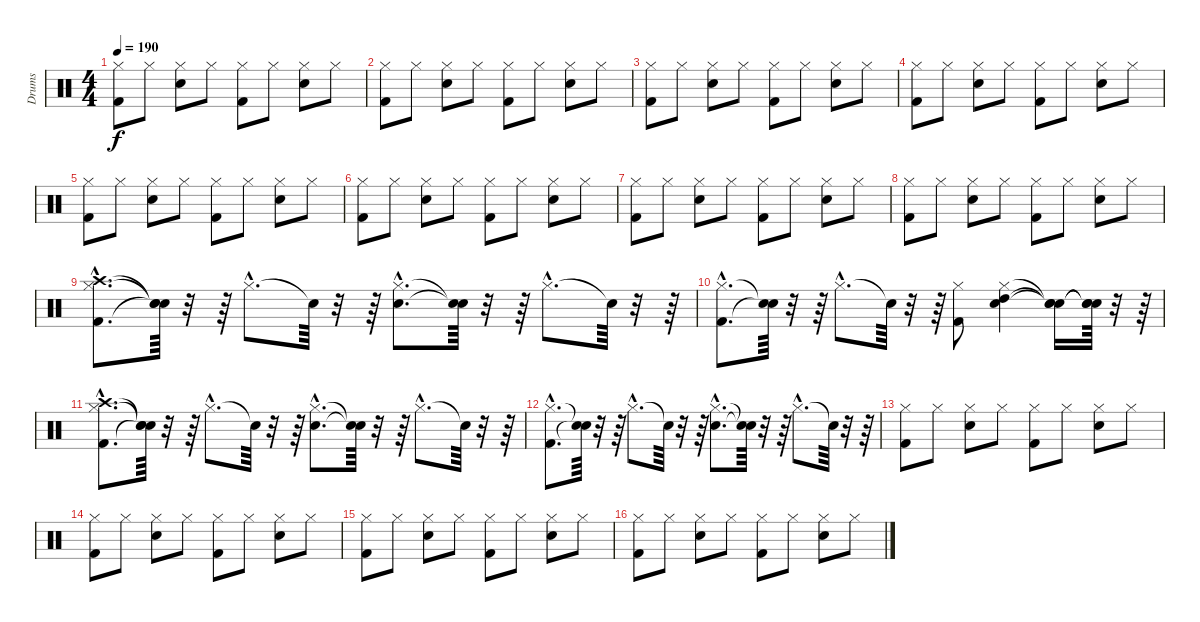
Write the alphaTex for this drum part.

\track ("Drums" "Drums") {instrument percussion}
\staff {score}
\articulation defaults
\ts (4 4)
\tempo 190
\clef neutral
\ks c
("Kick (hit) 2" "Hi-Hat (closed)").8{dy f} "Hi-Hat (closed)".8 ("Snare (hit) 2" "Hi-Hat (closed)").8 "Hi-Hat (closed)".8 ("Kick (hit) 2" "Hi-Hat (closed)").8 "Hi-Hat (closed)".8 ("Snare (hit) 2" "Hi-Hat (closed)").8 "Hi-Hat (closed)".8 |
("Kick (hit) 2" "Hi-Hat (closed)").8 "Hi-Hat (closed)".8 ("Snare (hit) 2" "Hi-Hat (closed)").8 "Hi-Hat (closed)".8 ("Kick (hit) 2" "Hi-Hat (closed)").8 "Hi-Hat (closed)".8 ("Snare (hit) 2" "Hi-Hat (closed)").8 "Hi-Hat (closed)".8 |
("Kick (hit) 2" "Hi-Hat (closed)").8 "Hi-Hat (closed)".8 ("Snare (hit) 2" "Hi-Hat (closed)").8 "Hi-Hat (closed)".8 ("Kick (hit) 2" "Hi-Hat (closed)").8 "Hi-Hat (closed)".8 ("Snare (hit) 2" "Hi-Hat (closed)").8 "Hi-Hat (closed)".8 |
("Kick (hit) 2" "Hi-Hat (closed)").8 "Hi-Hat (closed)".8 ("Snare (hit) 2" "Hi-Hat (closed)").8 "Hi-Hat (closed)".8 ("Kick (hit) 2" "Hi-Hat (closed)").8 "Hi-Hat (closed)".8 ("Snare (hit) 2" "Hi-Hat (closed)").8 "Hi-Hat (closed)".8 |
("Kick (hit) 2" "Hi-Hat (closed)").8 "Hi-Hat (closed)".8 ("Snare (hit) 2" "Hi-Hat (closed)").8 "Hi-Hat (closed)".8 ("Kick (hit) 2" "Hi-Hat (closed)").8 "Hi-Hat (closed)".8 ("Snare (hit) 2" "Hi-Hat (closed)").8 "Hi-Hat (closed)".8 |
("Kick (hit) 2" "Hi-Hat (closed)").8 "Hi-Hat (closed)".8 ("Snare (hit) 2" "Hi-Hat (closed)").8 "Hi-Hat (closed)".8 ("Kick (hit) 2" "Hi-Hat (closed)").8 "Hi-Hat (closed)".8 ("Snare (hit) 2" "Hi-Hat (closed)").8 "Hi-Hat (closed)".8 |
("Kick (hit) 2" "Hi-Hat (closed)").8 "Hi-Hat (closed)".8 ("Snare (hit) 2" "Hi-Hat (closed)").8 "Hi-Hat (closed)".8 ("Kick (hit) 2" "Hi-Hat (closed)").8 "Hi-Hat (closed)".8 ("Snare (hit) 2" "Hi-Hat (closed)").8 "Hi-Hat (closed)".8 |
("Kick (hit) 2" "Hi-Hat (closed)").8 "Hi-Hat (closed)".8 ("Snare (hit) 2" "Hi-Hat (closed)").8 "Hi-Hat (closed)".8 ("Kick (hit) 2" "Hi-Hat (closed)").8 "Hi-Hat (closed)".8 ("Snare (hit) 2" "Hi-Hat (closed)").8 "Hi-Hat (closed)".8 |
("Kick (hit) 2"{hac} "Hi-Hat (closed)"{hac} "Crash high (hit)"{hac}).8{d} ("Snare (hit)"{t} "Snare (hit)"{t} "Snare (hit)"{t}).64 r.32 r.64 "Hi-Hat (closed)"{hac}.8{d} "Snare (hit)"{t}.64 r.32 r.64 ("Snare (hit) 2"{hac} "Hi-Hat (closed)"{hac}).8{d} ("Snare (hit)"{t} "Snare (hit)"{t}).64 r.32 r.64 "Hi-Hat (closed)"{hac}.8{d} "Snare (hit)"{t}.64 r.32 r.64 |
("Kick (hit) 2"{hac} "Hi-Hat (closed)"{hac}).8{d} ("Snare (hit)"{t} "Snare (hit)"{t}).64 r.32 r.64 "Hi-Hat (closed)"{hac}.8{d} "Snare (hit)"{t}.64 r.32 r.64 ("Kick (hit) 2" "Hi-Hat (closed)").8 ("Snare (hit) 2" "Hi-Hat (closed)" "High Tom (hit)").4 ("Snare (hit)"{t} "Snare (hit)"{t} "Snare (hit)"{t}).16 ("Snare (hit)"{t} "Snare (hit)"{t} "Snare (hit)"{t}).64 r.32 r.64 |
("Kick (hit) 2"{hac} "Hi-Hat (closed)"{hac} "Crash high (hit)"{hac}).8{d} ("Snare (hit)"{t} "Snare (hit)"{t} "Snare (hit)"{t}).64 r.32 r.64 "Hi-Hat (closed)"{hac}.8{d} "Snare (hit)"{t}.64 r.32 r.64 ("Snare (hit) 2"{hac} "Hi-Hat (closed)"{hac}).8{d} ("Snare (hit)"{t} "Snare (hit)"{t}).64 r.32 r.64 "Hi-Hat (closed)"{hac}.8{d} "Snare (hit)"{t}.64 r.32 r.64 |
("Kick (hit) 2"{hac} "Hi-Hat (closed)"{hac}).8{d} ("Snare (hit)"{t} "Snare (hit)"{t}).64 r.32 r.64 "Hi-Hat (closed)"{hac}.8{d} "Snare (hit)"{t}.64 r.32 r.64 ("Snare (hit) 2"{hac} "Hi-Hat (closed)"{hac}).8{d} ("Snare (hit)"{t} "Snare (hit)"{t}).64 r.32 r.64 "Hi-Hat (closed)"{hac}.8{d} "Snare (hit)"{t}.64 r.32 r.64 |
("Kick (hit) 2" "Hi-Hat (closed)").8 "Hi-Hat (closed)".8 ("Snare (hit) 2" "Hi-Hat (closed)").8 "Hi-Hat (closed)".8 ("Kick (hit) 2" "Hi-Hat (closed)").8 "Hi-Hat (closed)".8 ("Snare (hit) 2" "Hi-Hat (closed)").8 "Hi-Hat (closed)".8 |
("Kick (hit) 2" "Hi-Hat (closed)").8 "Hi-Hat (closed)".8 ("Snare (hit) 2" "Hi-Hat (closed)").8 "Hi-Hat (closed)".8 ("Kick (hit) 2" "Hi-Hat (closed)").8 "Hi-Hat (closed)".8 ("Snare (hit) 2" "Hi-Hat (closed)").8 "Hi-Hat (closed)".8 |
("Kick (hit) 2" "Hi-Hat (closed)").8 "Hi-Hat (closed)".8 ("Snare (hit) 2" "Hi-Hat (closed)").8 "Hi-Hat (closed)".8 ("Kick (hit) 2" "Hi-Hat (closed)").8 "Hi-Hat (closed)".8 ("Snare (hit) 2" "Hi-Hat (closed)").8 "Hi-Hat (closed)".8 |
("Kick (hit) 2" "Hi-Hat (closed)").8 "Hi-Hat (closed)".8 ("Snare (hit) 2" "Hi-Hat (closed)").8 "Hi-Hat (closed)".8 ("Kick (hit) 2" "Hi-Hat (closed)").8 "Hi-Hat (closed)".8 ("Snare (hit) 2" "Hi-Hat (closed)").8 "Hi-Hat (closed)".8
